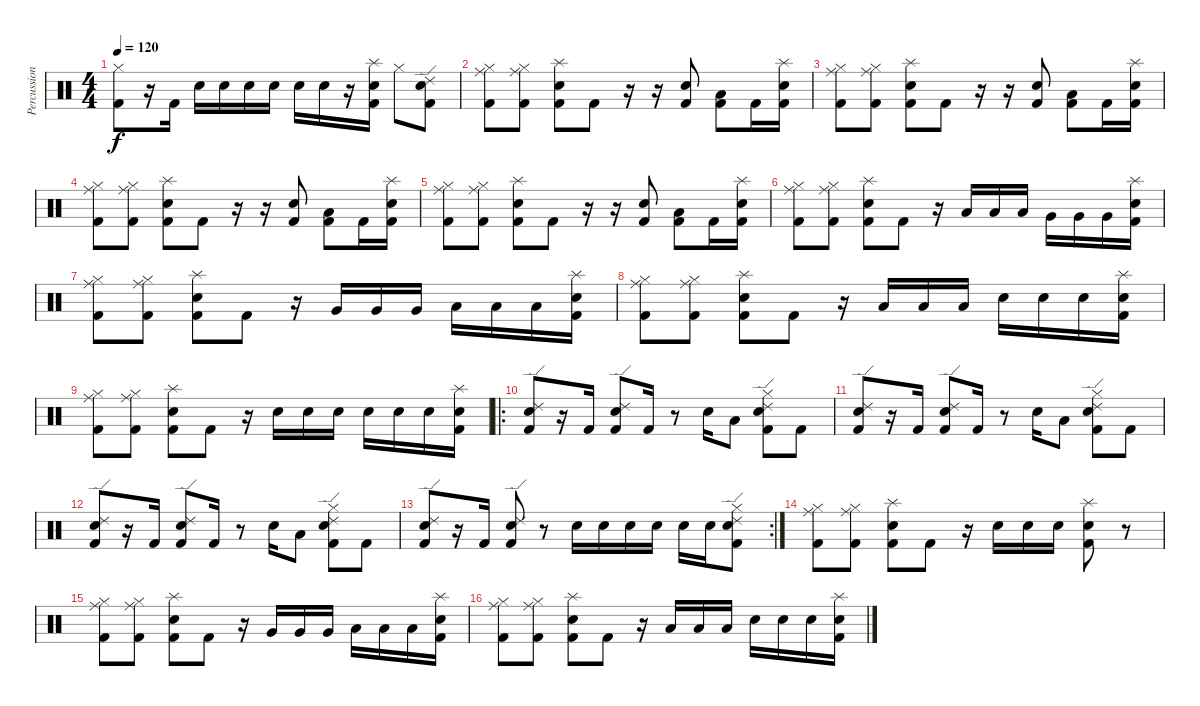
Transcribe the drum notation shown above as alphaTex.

\track ("Percussions" "Percussion") {instrument percussion}
\staff {score}
\articulation defaults
\ts (4 4)
\tempo 120
\clef neutral
\ks c
("Hi-Hat (closed)" "Kick (hit) 2").8{dy f} r.16 "Kick (hit) 2".16 "Electric Snare (hit)".16 "Electric Snare (hit)".16 "Electric Snare (hit)".16 "Electric Snare (hit)".16 "Electric Snare (hit)".16 "Electric Snare (hit)".16 r.16 ("Splash (hit)" "Electric Snare (hit)" "Kick (hit) 2").16 "Hi-Hat (closed)".8 ("Ride (edge) 2" "Electric Snare (hit)" "Kick (hit) 2").8 |
("Ride (middle)" "Hi-Hat (closed)" "Kick (hit) 2").8 ("Ride (middle)" "Hi-Hat (closed)" "Kick (hit) 2").8 ("Splash (hit)" "Electric Snare (hit)" "Kick (hit) 2").8 "Kick (hit) 2".8 r.16 r.16 ("Electric Snare (hit)" "Kick (hit) 2").8 ("Low Floor Tom (hit)" "Kick (hit) 2").8 "Kick (hit) 2".16 ("Splash (hit)" "Electric Snare (hit)" "Kick (hit) 2").16 |
("Ride (middle)" "Hi-Hat (closed)" "Kick (hit) 2").8 ("Ride (middle)" "Hi-Hat (closed)" "Kick (hit) 2").8 ("Splash (hit)" "Electric Snare (hit)" "Kick (hit) 2").8 "Kick (hit) 2".8 r.16 r.16 ("Electric Snare (hit)" "Kick (hit) 2").8 ("Low Floor Tom (hit)" "Kick (hit) 2").8 "Kick (hit) 2".16 ("Splash (hit)" "Electric Snare (hit)" "Kick (hit) 2").16 |
("Ride (middle)" "Hi-Hat (closed)" "Kick (hit) 2").8 ("Ride (middle)" "Hi-Hat (closed)" "Kick (hit) 2").8 ("Splash (hit)" "Electric Snare (hit)" "Kick (hit) 2").8 "Kick (hit) 2".8 r.16 r.16 ("Electric Snare (hit)" "Kick (hit) 2").8 ("Low Floor Tom (hit)" "Kick (hit) 2").8 "Kick (hit) 2".16 ("Splash (hit)" "Electric Snare (hit)" "Kick (hit) 2").16 |
("Ride (middle)" "Hi-Hat (closed)" "Kick (hit) 2").8 ("Ride (middle)" "Hi-Hat (closed)" "Kick (hit) 2").8 ("Splash (hit)" "Electric Snare (hit)" "Kick (hit) 2").8 "Kick (hit) 2".8 r.16 r.16 ("Electric Snare (hit)" "Kick (hit) 2").8 ("Low Floor Tom (hit)" "Kick (hit) 2").8 "Kick (hit) 2".16 ("Splash (hit)" "Electric Snare (hit)" "Kick (hit) 2").16 |
("Ride (middle)" "Hi-Hat (closed)" "Kick (hit) 2").8 ("Ride (middle)" "Hi-Hat (closed)" "Kick (hit) 2").8 ("Splash (hit)" "Electric Snare (hit)" "Kick (hit) 2").8 "Kick (hit) 2".8 r.16 "Low Tom (hit)".16 "Low Tom (hit)".16 "Low Tom (hit)".16 "Very Low Tom (hit)".16 "Very Low Tom (hit)".16 "Very Low Tom (hit)".16 ("Splash (hit)" "Electric Snare (hit)" "Kick (hit) 2").16 |
("Ride (middle)" "Hi-Hat (closed)" "Kick (hit) 2").8 ("Ride (middle)" "Hi-Hat (closed)" "Kick (hit) 2").8 ("Splash (hit)" "Electric Snare (hit)" "Kick (hit) 2").8 "Kick (hit) 2".8 r.16 "Very Low Tom (hit)".16 "Very Low Tom (hit)".16 "Very Low Tom (hit)".16 "Low Floor Tom (hit)".16 "Low Floor Tom (hit)".16 "Low Floor Tom (hit)".16 ("Splash (hit)" "Electric Snare (hit)" "Kick (hit) 2").16 |
("Ride (middle)" "Hi-Hat (closed)" "Kick (hit) 2").8 ("Ride (middle)" "Hi-Hat (closed)" "Kick (hit) 2").8 ("Splash (hit)" "Electric Snare (hit)" "Kick (hit) 2").8 "Kick (hit) 2".8 r.16 "Low Floor Tom (hit)".16 "Low Floor Tom (hit)".16 "Low Floor Tom (hit)".16 "Electric Snare (hit)".16 "Electric Snare (hit)".16 "Electric Snare (hit)".16 ("Splash (hit)" "Electric Snare (hit)" "Kick (hit) 2").16 |
("Ride (middle)" "Hi-Hat (closed)" "Kick (hit) 2").8 ("Ride (middle)" "Hi-Hat (closed)" "Kick (hit) 2").8 ("Splash (hit)" "Electric Snare (hit)" "Kick (hit) 2").8 "Kick (hit) 2".8 r.16 "Electric Snare (hit)".16 "Electric Snare (hit)".16 "Electric Snare (hit)".16 "Electric Snare (hit)".16 "Electric Snare (hit)".16 "Electric Snare (hit)".16 ("Splash (hit)" "Electric Snare (hit)" "Kick (hit) 2").16 |
\ro
("Ride (edge) 2" "Electric Snare (hit)" "Kick (hit) 2").8 r.16 "Kick (hit) 2".16 ("Ride (edge) 2" "Electric Snare (hit)" "Kick (hit) 2").8 "Kick (hit) 2".16 r.8 "Electric Snare (hit)".16 "Low Floor Tom (hit)".8 ("Ride (edge) 2" "Hi-Hat (closed)" "Electric Snare (hit)" "Kick (hit) 2").8 "Kick (hit) 2".8 |
("Ride (edge) 2" "Electric Snare (hit)" "Kick (hit) 2").8 r.16 "Kick (hit) 2".16 ("Ride (edge) 2" "Electric Snare (hit)" "Kick (hit) 2").8 "Kick (hit) 2".16 r.8 "Electric Snare (hit)".16 "Low Floor Tom (hit)".8 ("Ride (edge) 2" "Hi-Hat (closed)" "Electric Snare (hit)" "Kick (hit) 2").8 "Kick (hit) 2".8 |
("Ride (edge) 2" "Electric Snare (hit)" "Kick (hit) 2").8 r.16 "Kick (hit) 2".16 ("Ride (edge) 2" "Electric Snare (hit)" "Kick (hit) 2").8 "Kick (hit) 2".16 r.8 "Electric Snare (hit)".16 "Low Floor Tom (hit)".8 ("Ride (edge) 2" "Hi-Hat (closed)" "Electric Snare (hit)" "Kick (hit) 2").8 "Kick (hit) 2".8 |
\rc 2
("Ride (edge) 2" "Electric Snare (hit)" "Kick (hit) 2").8 r.16 "Kick (hit) 2".16 ("Ride (edge) 2" "Electric Snare (hit)" "Kick (hit) 2").8 r.8 "Electric Snare (hit)".16 "Electric Snare (hit)".16 "Electric Snare (hit)".16 "Electric Snare (hit)".16 "Electric Snare (hit)".16 "Electric Snare (hit)".16 ("Ride (edge) 2" "Hi-Hat (closed)" "Electric Snare (hit)" "Kick (hit) 2").8 |
("Ride (middle)" "Hi-Hat (closed)" "Kick (hit) 2").8 ("Ride (middle)" "Hi-Hat (closed)" "Kick (hit) 2").8 ("Splash (hit)" "Electric Snare (hit)" "Kick (hit) 2").8 "Kick (hit) 2".8 r.16 "Electric Snare (hit)".16 "Electric Snare (hit)".16 "Electric Snare (hit)".16 ("Splash (hit)" "Electric Snare (hit)" "Kick (hit) 2").8 r.8 |
("Ride (middle)" "Hi-Hat (closed)" "Kick (hit) 2").8 ("Ride (middle)" "Hi-Hat (closed)" "Kick (hit) 2").8 ("Splash (hit)" "Electric Snare (hit)" "Kick (hit) 2").8 "Kick (hit) 2".8 r.16 "Very Low Tom (hit)".16 "Very Low Tom (hit)".16 "Very Low Tom (hit)".16 "Low Floor Tom (hit)".16 "Low Floor Tom (hit)".16 "Low Floor Tom (hit)".16 ("Splash (hit)" "Electric Snare (hit)" "Kick (hit) 2").16 |
("Ride (middle)" "Hi-Hat (closed)" "Kick (hit) 2").8 ("Ride (middle)" "Hi-Hat (closed)" "Kick (hit) 2").8 ("Splash (hit)" "Electric Snare (hit)" "Kick (hit) 2").8 "Kick (hit) 2".8 r.16 "Low Floor Tom (hit)".16 "Low Floor Tom (hit)".16 "Low Floor Tom (hit)".16 "Electric Snare (hit)".16 "Electric Snare (hit)".16 "Electric Snare (hit)".16 ("Splash (hit)" "Electric Snare (hit)" "Kick (hit) 2").16
